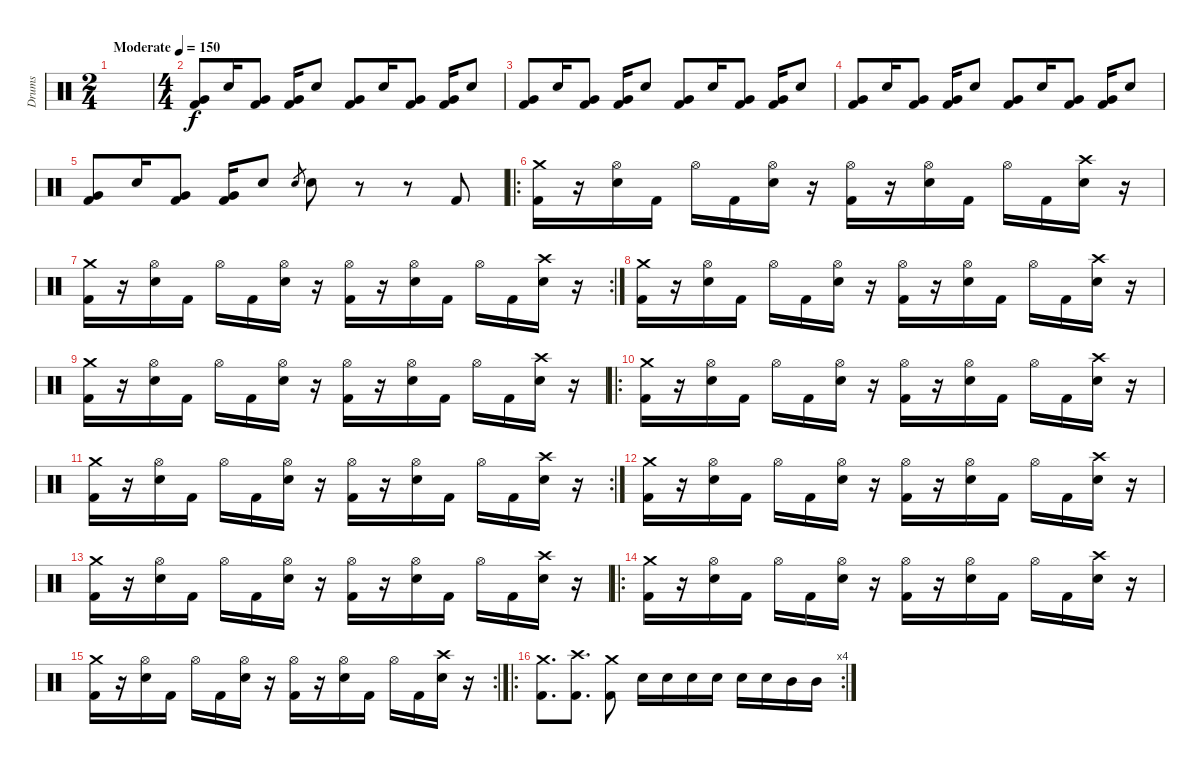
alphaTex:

\track ("Drums" "Drums") {instrument percussion}
\staff {score}
\articulation defaults
\ts (2 4)
\tempo (150 "Moderate")
\clef neutral
\ks c
|
\ts (4 4)
("Very Low Tom (hit)" "Kick (hit) 2").8 "Electric Snare (hit)".16 ("Very Low Tom (hit)" "Kick (hit) 2").8 ("Very Low Tom (hit)" "Kick (hit) 2").16 "Electric Snare (hit)".8 ("Very Low Tom (hit)" "Kick (hit) 2").8 "Electric Snare (hit)".16 ("Very Low Tom (hit)" "Kick (hit) 2").8 ("Very Low Tom (hit)" "Kick (hit) 2").16 "Electric Snare (hit)".8 |
("Very Low Tom (hit)" "Kick (hit) 2").8 "Electric Snare (hit)".16 ("Very Low Tom (hit)" "Kick (hit) 2").8 ("Very Low Tom (hit)" "Kick (hit) 2").16 "Electric Snare (hit)".8 ("Very Low Tom (hit)" "Kick (hit) 2").8 "Electric Snare (hit)".16 ("Very Low Tom (hit)" "Kick (hit) 2").8 ("Very Low Tom (hit)" "Kick (hit) 2").16 "Electric Snare (hit)".8 |
("Very Low Tom (hit)" "Kick (hit) 2").8 "Electric Snare (hit)".16 ("Very Low Tom (hit)" "Kick (hit) 2").8 ("Very Low Tom (hit)" "Kick (hit) 2").16 "Electric Snare (hit)".8 ("Very Low Tom (hit)" "Kick (hit) 2").8 "Electric Snare (hit)".16 ("Very Low Tom (hit)" "Kick (hit) 2").8 ("Very Low Tom (hit)" "Kick (hit) 2").16 "Electric Snare (hit)".8 |
("Very Low Tom (hit)" "Kick (hit) 2").8 "Electric Snare (hit)".16 ("Very Low Tom (hit)" "Kick (hit) 2").8 ("Very Low Tom (hit)" "Kick (hit) 2").16 "Electric Snare (hit)".8 "Electric Snare (hit)".8{gr} "Electric Snare (hit)".8 r.8 r.8 "Kick (hit) 2".8 |
\ro
("Crash medium (hit)" "Kick (hit) 2").16 r.16 ("Hi-Hat (open)" "Electric Snare (hit)").16 "Kick (hit) 2".16 "Hi-Hat (open)".16 "Kick (hit) 2".16 ("Hi-Hat (open)" "Electric Snare (hit)").16 r.16 ("Hi-Hat (open)" "Kick (hit) 2").16 r.16 ("Hi-Hat (open)" "Electric Snare (hit)").16 "Kick (hit) 2".16 "Hi-Hat (open)".16 "Kick (hit) 2".16 ("Crash high (hit)" "Electric Snare (hit)").16 r.16 |
\rc 2
("Crash medium (hit)" "Kick (hit) 2").16 r.16 ("Hi-Hat (open)" "Electric Snare (hit)").16 "Kick (hit) 2".16 "Hi-Hat (open)".16 "Kick (hit) 2".16 ("Hi-Hat (open)" "Electric Snare (hit)").16 r.16 ("Hi-Hat (open)" "Kick (hit) 2").16 r.16 ("Hi-Hat (open)" "Electric Snare (hit)").16 "Kick (hit) 2".16 "Hi-Hat (open)".16 "Kick (hit) 2".16 ("Crash high (hit)" "Electric Snare (hit)").16 r.16 |
("Crash medium (hit)" "Kick (hit) 2").16 r.16 ("Hi-Hat (open)" "Electric Snare (hit)").16 "Kick (hit) 2".16 "Hi-Hat (open)".16 "Kick (hit) 2".16 ("Hi-Hat (open)" "Electric Snare (hit)").16 r.16 ("Hi-Hat (open)" "Kick (hit) 2").16 r.16 ("Hi-Hat (open)" "Electric Snare (hit)").16 "Kick (hit) 2".16 "Hi-Hat (open)".16 "Kick (hit) 2".16 ("Crash high (hit)" "Electric Snare (hit)").16 r.16 |
("Crash medium (hit)" "Kick (hit) 2").16 r.16 ("Hi-Hat (open)" "Electric Snare (hit)").16 "Kick (hit) 2".16 "Hi-Hat (open)".16 "Kick (hit) 2".16 ("Hi-Hat (open)" "Electric Snare (hit)").16 r.16 ("Hi-Hat (open)" "Kick (hit) 2").16 r.16 ("Hi-Hat (open)" "Electric Snare (hit)").16 "Kick (hit) 2".16 "Hi-Hat (open)".16 "Kick (hit) 2".16 ("Crash high (hit)" "Electric Snare (hit)").16 r.16 |
\ro
("Crash medium (hit)" "Kick (hit) 2").16 r.16 ("Hi-Hat (open)" "Electric Snare (hit)").16 "Kick (hit) 2".16 "Hi-Hat (open)".16 "Kick (hit) 2".16 ("Hi-Hat (open)" "Electric Snare (hit)").16 r.16 ("Hi-Hat (open)" "Kick (hit) 2").16 r.16 ("Hi-Hat (open)" "Electric Snare (hit)").16 "Kick (hit) 2".16 "Hi-Hat (open)".16 "Kick (hit) 2".16 ("Crash high (hit)" "Electric Snare (hit)").16 r.16 |
\rc 2
("Crash medium (hit)" "Kick (hit) 2").16 r.16 ("Hi-Hat (open)" "Electric Snare (hit)").16 "Kick (hit) 2".16 "Hi-Hat (open)".16 "Kick (hit) 2".16 ("Hi-Hat (open)" "Electric Snare (hit)").16 r.16 ("Hi-Hat (open)" "Kick (hit) 2").16 r.16 ("Hi-Hat (open)" "Electric Snare (hit)").16 "Kick (hit) 2".16 "Hi-Hat (open)".16 "Kick (hit) 2".16 ("Crash high (hit)" "Electric Snare (hit)").16 r.16 |
("Crash medium (hit)" "Kick (hit) 2").16 r.16 ("Hi-Hat (open)" "Electric Snare (hit)").16 "Kick (hit) 2".16 "Hi-Hat (open)".16 "Kick (hit) 2".16 ("Hi-Hat (open)" "Electric Snare (hit)").16 r.16 ("Hi-Hat (open)" "Kick (hit) 2").16 r.16 ("Hi-Hat (open)" "Electric Snare (hit)").16 "Kick (hit) 2".16 "Hi-Hat (open)".16 "Kick (hit) 2".16 ("Crash high (hit)" "Electric Snare (hit)").16 r.16 |
("Crash medium (hit)" "Kick (hit) 2").16 r.16 ("Hi-Hat (open)" "Electric Snare (hit)").16 "Kick (hit) 2".16 "Hi-Hat (open)".16 "Kick (hit) 2".16 ("Hi-Hat (open)" "Electric Snare (hit)").16 r.16 ("Hi-Hat (open)" "Kick (hit) 2").16 r.16 ("Hi-Hat (open)" "Electric Snare (hit)").16 "Kick (hit) 2".16 "Hi-Hat (open)".16 "Kick (hit) 2".16 ("Crash high (hit)" "Electric Snare (hit)").16 r.16 |
\ro
("Crash medium (hit)" "Kick (hit) 2").16 r.16 ("Hi-Hat (open)" "Electric Snare (hit)").16 "Kick (hit) 2".16 "Hi-Hat (open)".16 "Kick (hit) 2".16 ("Hi-Hat (open)" "Electric Snare (hit)").16 r.16 ("Hi-Hat (open)" "Kick (hit) 2").16 r.16 ("Hi-Hat (open)" "Electric Snare (hit)").16 "Kick (hit) 2".16 "Hi-Hat (open)".16 "Kick (hit) 2".16 ("Crash high (hit)" "Electric Snare (hit)").16 r.16 |
\rc 2
("Crash medium (hit)" "Kick (hit) 2").16 r.16 ("Hi-Hat (open)" "Electric Snare (hit)").16 "Kick (hit) 2".16 "Hi-Hat (open)".16 "Kick (hit) 2".16 ("Hi-Hat (open)" "Electric Snare (hit)").16 r.16 ("Hi-Hat (open)" "Kick (hit) 2").16 r.16 ("Hi-Hat (open)" "Electric Snare (hit)").16 "Kick (hit) 2".16 "Hi-Hat (open)".16 "Kick (hit) 2".16 ("Crash high (hit)" "Electric Snare (hit)").16 r.16 |
\ro
\rc 4
("Crash medium (hit)" "Kick (hit) 2").8{d} ("Crash high (hit)" "Kick (hit) 2").8{d} ("Crash medium (hit)" "Kick (hit) 2").8 "Electric Snare (hit)".16 "Electric Snare (hit)".16 "Electric Snare (hit)".16 "Electric Snare (hit)".16 "Electric Snare (hit)".16 "Electric Snare (hit)".16 "Mid Tom (hit)".16 "Mid Tom (hit)".16
